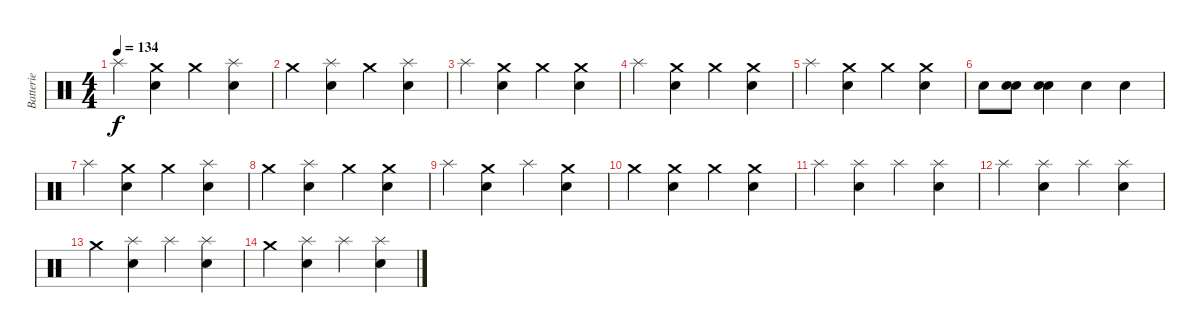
\track ("Batterie" "Batterie") {instrument percussion}
\staff {score}
\articulation defaults
\ts (4 4)
\tempo 134
\clef neutral
\ks c "Splash (hit)".4{dy f}
("Crash medium (hit)" "Electric Snare (hit)").4 "Crash medium (hit)".4 ("Splash (hit)" "Electric Snare (hit)").4 |
"Crash medium (hit)".4 ("Splash (hit)" "Electric Snare (hit)").4 "Crash medium (hit)".4 ("Splash (hit)" "Electric Snare (hit)").4 |
"Splash (hit)".4 ("Crash medium (hit)" "Electric Snare (hit)").4 "Crash medium (hit)".4 ("Crash medium (hit)" "Electric Snare (hit)").4 |
"Splash (hit)".4 ("Crash medium (hit)" "Electric Snare (hit)").4 "Crash medium (hit)".4 ("Crash medium (hit)" "Electric Snare (hit)").4 |
"Splash (hit)".4 ("Crash medium (hit)" "Electric Snare (hit)").4 "Crash medium (hit)".4 ("Crash medium (hit)" "Electric Snare (hit)").4 |
"Electric Snare (hit)".8 ("Electric Snare (hit)" "Electric Snare (hit)").8 ("Electric Snare (hit)" "Electric Snare (hit)").4 "Electric Snare (hit)".4 "Electric Snare (hit)".4 |
"Splash (hit)".4 ("Crash medium (hit)" "Electric Snare (hit)").4 "Crash medium (hit)".4 ("Splash (hit)" "Electric Snare (hit)").4 |
"Crash medium (hit)".4 ("Splash (hit)" "Electric Snare (hit)").4 "Crash medium (hit)".4 ("Crash medium (hit)" "Electric Snare (hit)").4 |
"Splash (hit)".4 ("Crash medium (hit)" "Electric Snare (hit)").4 "Splash (hit)".4 ("Crash medium (hit)" "Electric Snare (hit)").4 |
"Crash medium (hit)".4 ("Crash medium (hit)" "Electric Snare (hit)").4 "Crash medium (hit)".4 ("Crash medium (hit)" "Electric Snare (hit)").4 |
"Splash (hit)".4 ("Splash (hit)" "Electric Snare (hit)").4 "Splash (hit)".4 ("Splash (hit)" "Electric Snare (hit)").4 |
"Splash (hit)".4 ("Splash (hit)" "Electric Snare (hit)").4 "Splash (hit)".4 ("Splash (hit)" "Electric Snare (hit)").4 |
"Crash medium (hit)".4 ("Splash (hit)" "Electric Snare (hit)").4 "Splash (hit)".4 ("Splash (hit)" "Electric Snare (hit)").4 |
"Crash medium (hit)".4 ("Splash (hit)" "Electric Snare (hit)").4 "Splash (hit)".4 ("Splash (hit)" "Electric Snare (hit)").4
